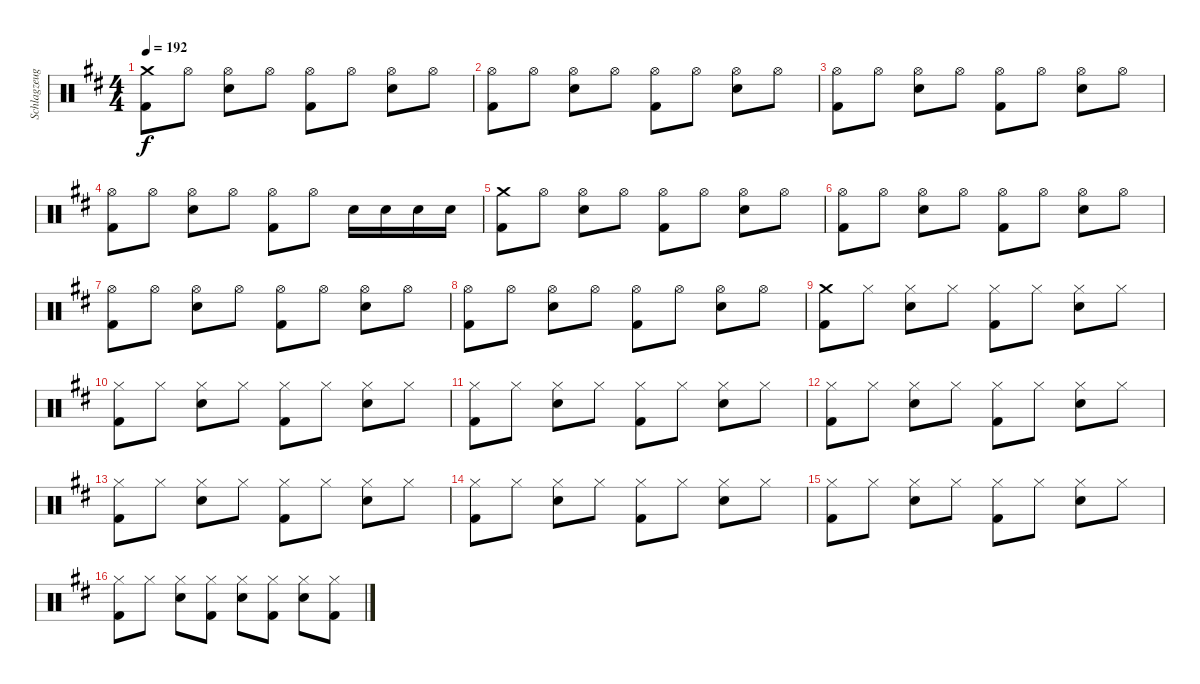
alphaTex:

\track ("Schlagzeug - Vom" "Schlagzeug") {instrument percussion}
\staff {score}
\articulation defaults
\ts (4 4)
\tempo 192
\clef neutral
\ks d
("Crash medium (hit)" "Kick (hit) 2").8{dy f} "Hi-Hat (open)".8 ("Hi-Hat (open)" "Snare (hit) 2").8 "Hi-Hat (open)".8 ("Hi-Hat (open)" "Kick (hit) 2").8 "Hi-Hat (open)".8 ("Hi-Hat (open)" "Snare (hit) 2").8 "Hi-Hat (open)".8 |
("Hi-Hat (open)" "Kick (hit) 2").8 "Hi-Hat (open)".8 ("Hi-Hat (open)" "Snare (hit) 2").8 "Hi-Hat (open)".8 ("Hi-Hat (open)" "Kick (hit) 2").8 "Hi-Hat (open)".8 ("Hi-Hat (open)" "Snare (hit) 2").8 "Hi-Hat (open)".8 |
("Hi-Hat (open)" "Kick (hit) 2").8 "Hi-Hat (open)".8 ("Hi-Hat (open)" "Snare (hit) 2").8 "Hi-Hat (open)".8 ("Hi-Hat (open)" "Kick (hit) 2").8 "Hi-Hat (open)".8 ("Hi-Hat (open)" "Snare (hit) 2").8 "Hi-Hat (open)".8 |
("Hi-Hat (open)" "Kick (hit) 2").8 "Hi-Hat (open)".8 ("Hi-Hat (open)" "Snare (hit) 2").8 "Hi-Hat (open)".8 ("Hi-Hat (open)" "Kick (hit) 2").8 "Hi-Hat (open)".8 "Snare (hit) 2".16 "Snare (hit) 2".16 "Snare (hit) 2".16 "Snare (hit) 2".16 |
("Crash medium (hit)" "Kick (hit) 2").8 "Hi-Hat (open)".8 ("Hi-Hat (open)" "Snare (hit) 2").8 "Hi-Hat (open)".8 ("Hi-Hat (open)" "Kick (hit) 2").8 "Hi-Hat (open)".8 ("Hi-Hat (open)" "Snare (hit) 2").8 "Hi-Hat (open)".8 |
("Hi-Hat (open)" "Kick (hit) 2").8 "Hi-Hat (open)".8 ("Hi-Hat (open)" "Snare (hit) 2").8 "Hi-Hat (open)".8 ("Hi-Hat (open)" "Kick (hit) 2").8 "Hi-Hat (open)".8 ("Hi-Hat (open)" "Snare (hit) 2").8 "Hi-Hat (open)".8 |
("Hi-Hat (open)" "Kick (hit) 2").8 "Hi-Hat (open)".8 ("Hi-Hat (open)" "Snare (hit) 2").8 "Hi-Hat (open)".8 ("Hi-Hat (open)" "Kick (hit) 2").8 "Hi-Hat (open)".8 ("Hi-Hat (open)" "Snare (hit) 2").8 "Hi-Hat (open)".8 |
("Hi-Hat (open)" "Kick (hit) 2").8 "Hi-Hat (open)".8 ("Hi-Hat (open)" "Snare (hit) 2").8 "Hi-Hat (open)".8 ("Hi-Hat (open)" "Kick (hit) 2").8 "Hi-Hat (open)".8 ("Hi-Hat (open)" "Snare (hit) 2").8 "Hi-Hat (open)".8 |
("Crash medium (hit)" "Kick (hit) 2").8 "Hi-Hat (closed)".8 ("Hi-Hat (closed)" "Snare (hit) 2").8 "Hi-Hat (closed)".8 ("Hi-Hat (closed)" "Kick (hit) 2").8 "Hi-Hat (closed)".8 ("Hi-Hat (closed)" "Snare (hit) 2").8 "Hi-Hat (closed)".8 |
("Hi-Hat (closed)" "Kick (hit) 2").8 "Hi-Hat (closed)".8 ("Hi-Hat (closed)" "Snare (hit) 2").8 "Hi-Hat (closed)".8 ("Hi-Hat (closed)" "Kick (hit) 2").8 "Hi-Hat (closed)".8 ("Hi-Hat (closed)" "Snare (hit) 2").8 "Hi-Hat (closed)".8 |
("Hi-Hat (closed)" "Kick (hit) 2").8 "Hi-Hat (closed)".8 ("Hi-Hat (closed)" "Snare (hit) 2").8 "Hi-Hat (closed)".8 ("Hi-Hat (closed)" "Kick (hit) 2").8 "Hi-Hat (closed)".8 ("Hi-Hat (closed)" "Snare (hit) 2").8 "Hi-Hat (closed)".8 |
("Hi-Hat (closed)" "Kick (hit) 2").8 "Hi-Hat (closed)".8 ("Hi-Hat (closed)" "Snare (hit) 2").8 "Hi-Hat (closed)".8 ("Hi-Hat (closed)" "Kick (hit) 2").8 "Hi-Hat (closed)".8 ("Hi-Hat (closed)" "Snare (hit) 2").8 "Hi-Hat (closed)".8 |
("Hi-Hat (closed)" "Kick (hit) 2").8 "Hi-Hat (closed)".8 ("Hi-Hat (closed)" "Snare (hit) 2").8 "Hi-Hat (closed)".8 ("Hi-Hat (closed)" "Kick (hit) 2").8 "Hi-Hat (closed)".8 ("Hi-Hat (closed)" "Snare (hit) 2").8 "Hi-Hat (closed)".8 |
("Hi-Hat (closed)" "Kick (hit) 2").8 "Hi-Hat (closed)".8 ("Hi-Hat (closed)" "Snare (hit) 2").8 "Hi-Hat (closed)".8 ("Hi-Hat (closed)" "Kick (hit) 2").8 "Hi-Hat (closed)".8 ("Hi-Hat (closed)" "Snare (hit) 2").8 "Hi-Hat (closed)".8 |
("Hi-Hat (closed)" "Kick (hit) 2").8 "Hi-Hat (closed)".8 ("Hi-Hat (closed)" "Snare (hit) 2").8 "Hi-Hat (closed)".8 ("Hi-Hat (closed)" "Kick (hit) 2").8 "Hi-Hat (closed)".8 ("Hi-Hat (closed)" "Snare (hit) 2").8 "Hi-Hat (closed)".8 |
("Hi-Hat (closed)" "Kick (hit) 2").8 "Hi-Hat (closed)".8 ("Hi-Hat (closed)" "Snare (hit) 2").8 ("Hi-Hat (closed)" "Kick (hit) 2").8 ("Hi-Hat (closed)" "Snare (hit) 2").8 ("Hi-Hat (closed)" "Kick (hit) 2").8 ("Hi-Hat (closed)" "Snare (hit) 2").8 ("Hi-Hat (closed)" "Kick (hit) 2").8
